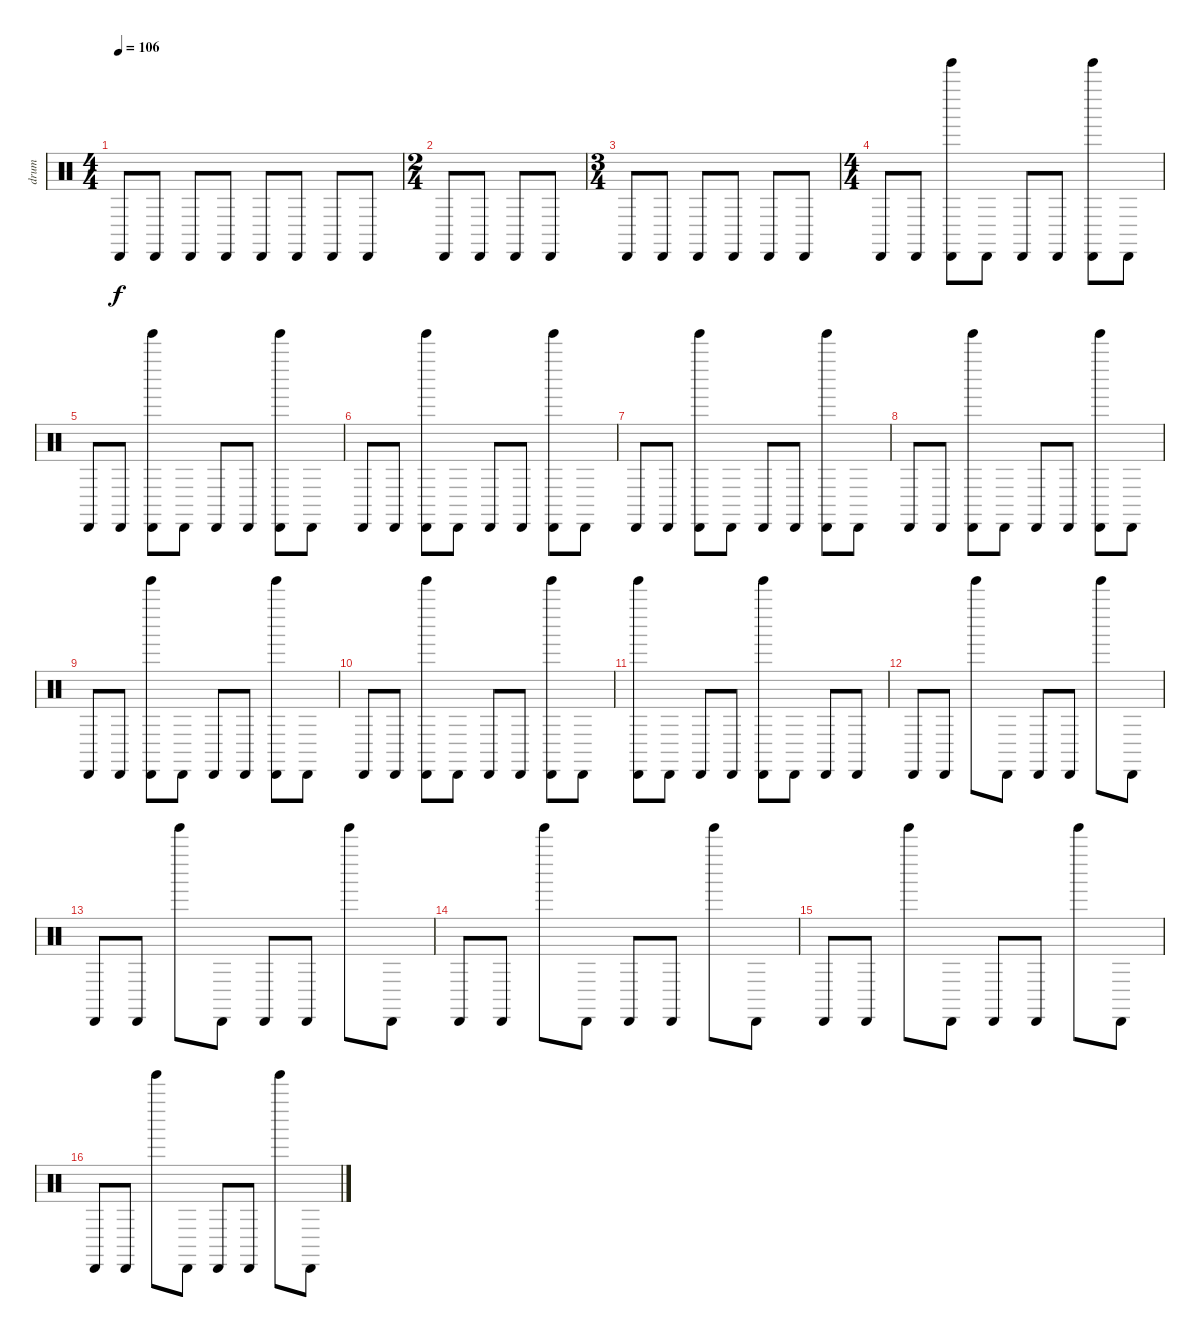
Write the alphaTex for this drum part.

\track ("drum" "drum") {instrument percussion}
\staff {score}
\articulation defaults
\ts (4 4)
\tempo 106
\clef neutral
\ks c "Cabasa (hit)".8{dy f} "Cabasa (hit)".8 "Cabasa (hit)".8 "Cabasa (hit)".8 "Cabasa (hit)".8 "Cabasa (hit)".8 "Cabasa (hit)".8 "Cabasa (hit)".8
|
\ts (2 4)
"Cabasa (hit)".8 "Cabasa (hit)".8 "Cabasa (hit)".8 "Cabasa (hit)".8 |
\ts (3 4)
"Cabasa (hit)".8 "Cabasa (hit)".8 "Cabasa (hit)".8 "Cabasa (hit)".8 "Cabasa (hit)".8 "Cabasa (hit)".8 |
\ts (4 4)
"Cabasa (hit)".8 "Cabasa (hit)".8 ("Cabasa (hit)" "Tinkle Bell (hit)").8 "Cabasa (hit)".8 "Cabasa (hit)".8 "Cabasa (hit)".8 ("Cabasa (hit)" "Tinkle Bell (hit)").8 "Cabasa (hit)".8 |
"Cabasa (hit)".8 "Cabasa (hit)".8 ("Cabasa (hit)" "Tinkle Bell (hit)").8 "Cabasa (hit)".8 "Cabasa (hit)".8 "Cabasa (hit)".8 ("Cabasa (hit)" "Tinkle Bell (hit)").8 "Cabasa (hit)".8 |
"Cabasa (hit)".8 "Cabasa (hit)".8 ("Cabasa (hit)" "Tinkle Bell (hit)").8 "Cabasa (hit)".8 "Cabasa (hit)".8 "Cabasa (hit)".8 ("Cabasa (hit)" "Tinkle Bell (hit)").8 "Cabasa (hit)".8 |
"Cabasa (hit)".8 "Cabasa (hit)".8 ("Cabasa (hit)" "Tinkle Bell (hit)").8 "Cabasa (hit)".8 "Cabasa (hit)".8 "Cabasa (hit)".8 ("Cabasa (hit)" "Tinkle Bell (hit)").8 "Cabasa (hit)".8 |
"Cabasa (hit)".8 "Cabasa (hit)".8 ("Cabasa (hit)" "Tinkle Bell (hit)").8 "Cabasa (hit)".8 "Cabasa (hit)".8 "Cabasa (hit)".8 ("Cabasa (hit)" "Tinkle Bell (hit)").8 "Cabasa (hit)".8 |
"Cabasa (hit)".8 "Cabasa (hit)".8 ("Cabasa (hit)" "Tinkle Bell (hit)").8 "Cabasa (hit)".8 "Cabasa (hit)".8 "Cabasa (hit)".8 ("Cabasa (hit)" "Tinkle Bell (hit)").8 "Cabasa (hit)".8 |
"Cabasa (hit)".8 "Cabasa (hit)".8 ("Cabasa (hit)" "Tinkle Bell (hit)").8 "Cabasa (hit)".8 "Cabasa (hit)".8 "Cabasa (hit)".8 ("Cabasa (hit)" "Tinkle Bell (hit)").8 "Cabasa (hit)".8 |
("Cabasa (hit)" "Tinkle Bell (hit)").8 "Cabasa (hit)".8 "Cabasa (hit)".8 "Cabasa (hit)".8 ("Cabasa (hit)" "Tinkle Bell (hit)").8 "Cabasa (hit)".8 "Cabasa (hit)".8 "Cabasa (hit)".8 |
"Cabasa (hit)".8 "Cabasa (hit)".8 "Tinkle Bell (hit)".8 "Cabasa (hit)".8 "Cabasa (hit)".8 "Cabasa (hit)".8 "Tinkle Bell (hit)".8 "Cabasa (hit)".8 |
"Cabasa (hit)".8 "Cabasa (hit)".8 "Tinkle Bell (hit)".8 "Cabasa (hit)".8 "Cabasa (hit)".8 "Cabasa (hit)".8 "Tinkle Bell (hit)".8 "Cabasa (hit)".8 |
"Cabasa (hit)".8 "Cabasa (hit)".8 "Tinkle Bell (hit)".8 "Cabasa (hit)".8 "Cabasa (hit)".8 "Cabasa (hit)".8 "Tinkle Bell (hit)".8 "Cabasa (hit)".8 |
"Cabasa (hit)".8 "Cabasa (hit)".8 "Tinkle Bell (hit)".8 "Cabasa (hit)".8 "Cabasa (hit)".8 "Cabasa (hit)".8 "Tinkle Bell (hit)".8 "Cabasa (hit)".8 |
"Cabasa (hit)".8 "Cabasa (hit)".8 "Tinkle Bell (hit)".8 "Cabasa (hit)".8 "Cabasa (hit)".8 "Cabasa (hit)".8 "Tinkle Bell (hit)".8 "Cabasa (hit)".8
